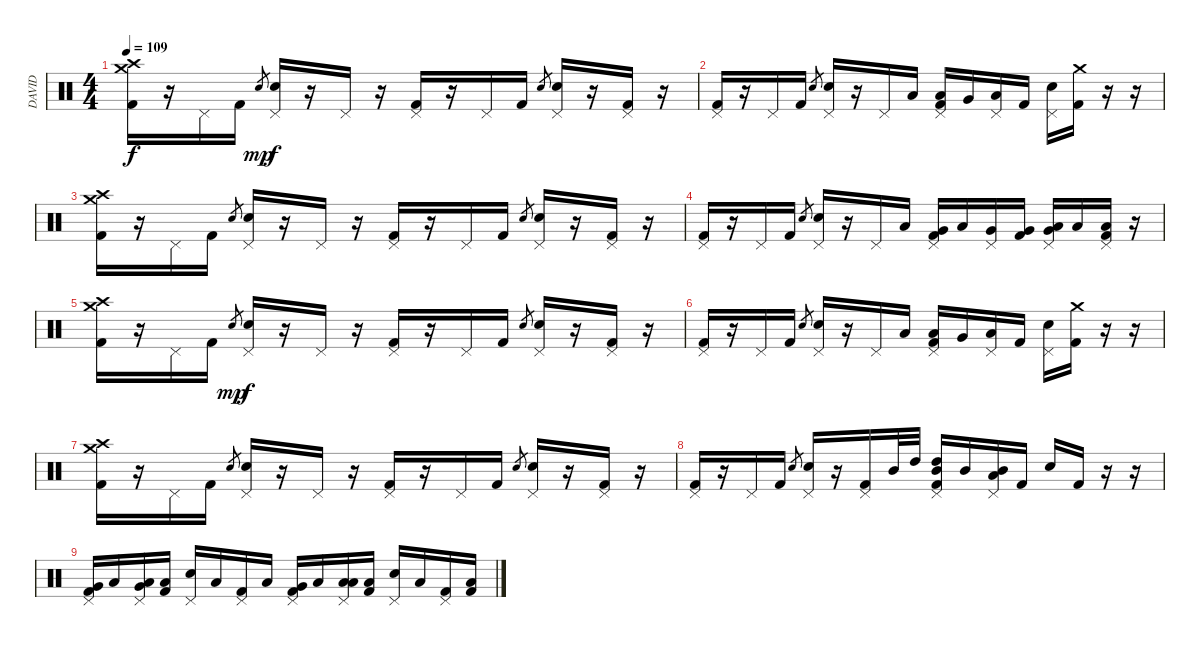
\track ("DAVID" "DAVID") {instrument percussion}
\staff {score}
\articulation defaults
\ts (4 4)
\tempo 109
\clef neutral
\ks c
("Crash medium (hit)" "Crash high (hit)" "Kick (hit) 2").16{dy f} r.16 "Pedal Hi-Hat (hit)".16 "Kick (hit) 2".16 "Snare (hit) 2".8{gr dy mp} ("Pedal Hi-Hat (hit)" "Snare (hit) 2").16{dy f} r.16 "Pedal Hi-Hat (hit)".16 r.16 ("Pedal Hi-Hat (hit)" "Kick (hit) 2").16 r.16 "Pedal Hi-Hat (hit)".16 "Kick (hit) 2".16 "Snare (hit) 2".8{gr} ("Pedal Hi-Hat (hit)" "Snare (hit) 2").16 r.16 ("Pedal Hi-Hat (hit)" "Kick (hit) 2").16 r.16 |
("Pedal Hi-Hat (hit)" "Kick (hit) 2").16 r.16 "Pedal Hi-Hat (hit)".16 "Kick (hit) 2".16 "Snare (hit) 2".8{gr} ("Pedal Hi-Hat (hit)" "Snare (hit) 2").16 r.16 "Pedal Hi-Hat (hit)".16 "Low Tom (hit)".16 ("Pedal Hi-Hat (hit)" "Low Tom (hit)" "Kick (hit) 2").16 "Very Low Tom (hit)".16 ("Pedal Hi-Hat (hit)" "Low Floor Tom (hit)").16 "Kick (hit) 2".16 ("Pedal Hi-Hat (hit)" "Snare (hit) 2").16 ("Crash medium (hit)" "Kick (hit) 2").16 r.16 r.16 |
("Crash medium (hit)" "Crash high (hit)" "Kick (hit) 2").16 r.16 "Pedal Hi-Hat (hit)".16 "Kick (hit) 2".16 "Snare (hit) 2".8{gr} ("Pedal Hi-Hat (hit)" "Snare (hit) 2").16 r.16 "Pedal Hi-Hat (hit)".16 r.16 ("Pedal Hi-Hat (hit)" "Kick (hit) 2").16 r.16 "Pedal Hi-Hat (hit)".16 "Kick (hit) 2".16 "Snare (hit) 2".8{gr} ("Pedal Hi-Hat (hit)" "Snare (hit) 2").16 r.16 ("Pedal Hi-Hat (hit)" "Kick (hit) 2").16 r.16 |
("Pedal Hi-Hat (hit)" "Kick (hit) 2").16 r.16 "Pedal Hi-Hat (hit)".16 "Kick (hit) 2".16 "Snare (hit) 2".8{gr} ("Pedal Hi-Hat (hit)" "Snare (hit) 2").16 r.16 "Pedal Hi-Hat (hit)".16 "Low Tom (hit)".16 ("Pedal Hi-Hat (hit)" "Very Low Tom (hit)" "Kick (hit) 2").16 "Low Tom (hit)".16 ("Pedal Hi-Hat (hit)" "Very Low Tom (hit)").16 ("Very Low Tom (hit)" "Kick (hit) 2").16 ("Pedal Hi-Hat (hit)" "Very Low Tom (hit)" "Low Floor Tom (hit)").16 "Low Floor Tom (hit)".16 ("Pedal Hi-Hat (hit)" "Low Floor Tom (hit)" "Kick (hit) 2").16 r.16 |
("Crash medium (hit)" "Crash high (hit)" "Kick (hit) 2").16 r.16 "Pedal Hi-Hat (hit)".16 "Kick (hit) 2".16 "Snare (hit) 2".8{gr dy mp} ("Pedal Hi-Hat (hit)" "Snare (hit) 2").16{dy f} r.16 "Pedal Hi-Hat (hit)".16 r.16 ("Pedal Hi-Hat (hit)" "Kick (hit) 2").16 r.16 "Pedal Hi-Hat (hit)".16 "Kick (hit) 2".16 "Snare (hit) 2".8{gr} ("Pedal Hi-Hat (hit)" "Snare (hit) 2").16 r.16 ("Pedal Hi-Hat (hit)" "Kick (hit) 2").16 r.16 |
("Pedal Hi-Hat (hit)" "Kick (hit) 2").16 r.16 "Pedal Hi-Hat (hit)".16 "Kick (hit) 2".16 "Snare (hit) 2".8{gr} ("Pedal Hi-Hat (hit)" "Snare (hit) 2").16 r.16 "Pedal Hi-Hat (hit)".16 "Low Tom (hit)".16 ("Pedal Hi-Hat (hit)" "Low Tom (hit)" "Kick (hit) 2").16 "Very Low Tom (hit)".16 ("Pedal Hi-Hat (hit)" "Low Floor Tom (hit)").16 "Kick (hit) 2".16 ("Pedal Hi-Hat (hit)" "Snare (hit) 2").16 ("Crash medium (hit)" "Kick (hit) 2").16 r.16 r.16 |
("Crash medium (hit)" "Crash high (hit)" "Kick (hit) 2").16 r.16 "Pedal Hi-Hat (hit)".16 "Kick (hit) 2".16 "Snare (hit) 2".8{gr} ("Pedal Hi-Hat (hit)" "Snare (hit) 2").16 r.16 "Pedal Hi-Hat (hit)".16 r.16 ("Pedal Hi-Hat (hit)" "Kick (hit) 2").16 r.16 "Pedal Hi-Hat (hit)".16 "Kick (hit) 2".16 "Snare (hit) 2".8{gr} ("Pedal Hi-Hat (hit)" "Snare (hit) 2").16 r.16 ("Pedal Hi-Hat (hit)" "Kick (hit) 2").16 r.16 |
("Pedal Hi-Hat (hit)" "Kick (hit) 2").16 r.16 "Pedal Hi-Hat (hit)".16 "Kick (hit) 2".16 "Snare (hit) 2".8{gr} ("Pedal Hi-Hat (hit)" "Snare (hit) 2").16 r.16 ("Pedal Hi-Hat (hit)" "Kick (hit) 2").16 "Mid Tom (hit)".32 "High Tom (hit)".32 ("Pedal Hi-Hat (hit)" "High Tom (hit)" "Mid Tom (hit)" "Kick (hit) 2").16 "Mid Tom (hit)".16 ("Pedal Hi-Hat (hit)" "Low Tom (hit)" "Mid Tom (hit)").16 "Kick (hit) 2".16 "Snare (hit) 2".16 "Kick (hit) 2".16 r.16 r.16 |
("Pedal Hi-Hat (hit)" "Very Low Tom (hit)" "Kick (hit) 2").16 "Low Floor Tom (hit)".16 ("Pedal Hi-Hat (hit)" "Very Low Tom (hit)" "Low Floor Tom (hit)").16 ("Low Floor Tom (hit)" "Kick (hit) 2").16 ("Pedal Hi-Hat (hit)" "Snare (hit) 2").16 "Low Floor Tom (hit)".16 ("Pedal Hi-Hat (hit)" "Kick (hit) 2").16 "Low Floor Tom (hit)".16 ("Pedal Hi-Hat (hit)" "Very Low Tom (hit)" "Kick (hit) 2").16 "Low Floor Tom (hit)".16 ("Pedal Hi-Hat (hit)" "Low Floor Tom (hit)" "Low Floor Tom (hit)").16 ("Low Floor Tom (hit)" "Kick (hit) 2").16 ("Pedal Hi-Hat (hit)" "Snare (hit) 2").16 "Low Floor Tom (hit)".16 ("Pedal Hi-Hat (hit)" "Kick (hit) 2").16 ("Low Floor Tom (hit)" "Kick (hit) 2").16
